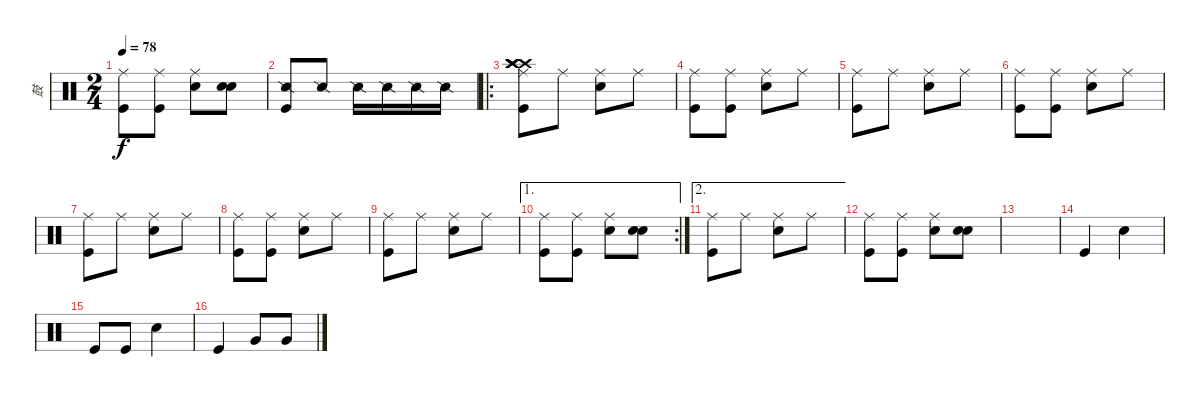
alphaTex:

\track ("鼓" "鼓") {instrument percussion}
\staff {score}
\articulation defaults
\ts (2 4)
\tempo 78
\clef neutral
\ks c
("Ride (middle)" "Kick (hit)").8{dy f} ("Ride (middle)" "Kick (hit)").8 ("Ride (middle)" "Metronome (bell)").8 ("Snare (hit)" "Metronome (bell)").8 |
("Kick (hit)" "Snare (side stick) 2").8 "Snare (side stick) 2".8 "Snare (side stick) 2".16 "Snare (side stick) 2".16 "Snare (side stick) 2".16 "Snare (side stick) 2".16 |
\ro
("Ride (middle)" "Kick (hit)" "Crash high (hit)" "Crash high (hit)" "Crash high (hit)" "Crash high (hit)").8 "Ride (middle)".8 ("Ride (middle)" "Metronome (bell)").8 "Ride (middle)".8 |
("Ride (middle)" "Kick (hit)").8 ("Ride (middle)" "Kick (hit)").8 ("Ride (middle)" "Metronome (bell)").8 "Ride (middle)".8 |
("Ride (middle)" "Kick (hit)").8 "Ride (middle)".8 ("Ride (middle)" "Metronome (bell)").8 "Ride (middle)".8 |
("Ride (middle)" "Kick (hit)").8 ("Ride (middle)" "Kick (hit)").8 ("Ride (middle)" "Metronome (bell)").8 "Ride (middle)".8 |
("Ride (middle)" "Kick (hit)").8 "Ride (middle)".8 ("Ride (middle)" "Metronome (bell)").8 "Ride (middle)".8 |
("Ride (middle)" "Kick (hit)").8 ("Ride (middle)" "Kick (hit)").8 ("Ride (middle)" "Metronome (bell)").8 "Ride (middle)".8 |
("Ride (middle)" "Kick (hit)").8 "Ride (middle)".8 ("Ride (middle)" "Metronome (bell)").8 "Ride (middle)".8 |
\ae 1
\rc 2
("Ride (middle)" "Kick (hit)").8 ("Ride (middle)" "Kick (hit)").8 ("Ride (middle)" "Metronome (bell)").8 ("Snare (hit)" "Metronome (bell)").8 |
\ae 2
("Ride (middle)" "Kick (hit)").8 "Ride (middle)".8 ("Ride (middle)" "Metronome (bell)").8 "Ride (middle)".8 |
("Ride (middle)" "Kick (hit)").8 ("Ride (middle)" "Kick (hit)").8 ("Ride (middle)" "Metronome (bell)").8 ("Snare (hit)" "Metronome (bell)").8 |
|
"Kick (hit)".4 "Snare (hit) 2".4 |
"Kick (hit)".8 "Kick (hit)".8 "Snare (hit) 2".4 |
"Kick (hit)".4 "Very Low Tom (hit)".8 "Very Low Tom (hit)".8
